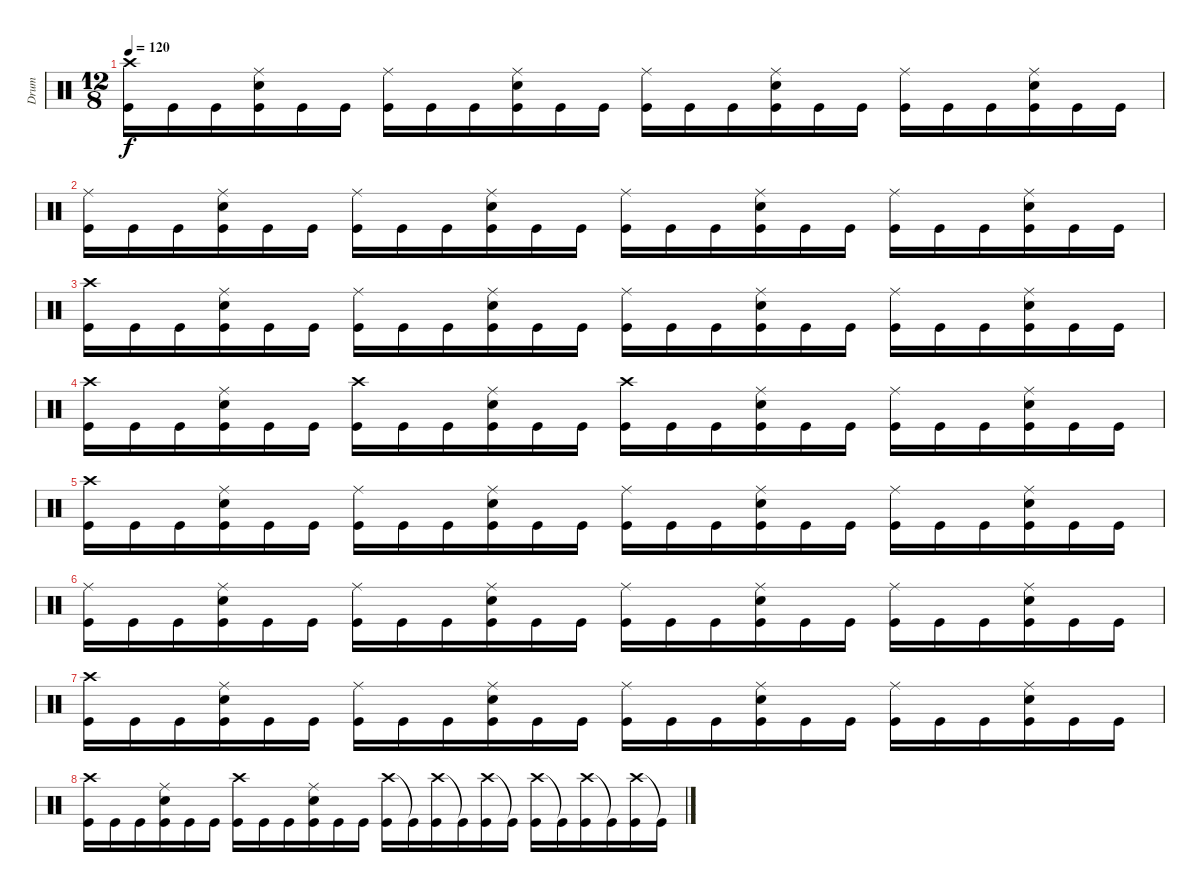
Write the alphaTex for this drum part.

\track ("Drum" "Drum") {instrument percussion}
\staff {score}
\articulation defaults
\ts (12 8)
\tempo 120
\clef neutral
\ks c
("Crash high (hit)" "Kick (hit)").16{dy f} "Kick (hit)".16 "Kick (hit)".16 ("Ride (middle)" "Electric Snare (hit)" "Kick (hit)").16 "Kick (hit)".16 "Kick (hit)".16 ("Ride (middle)" "Kick (hit)").16 "Kick (hit)".16 "Kick (hit)".16 ("Ride (middle)" "Electric Snare (hit)" "Kick (hit)").16 "Kick (hit)".16 "Kick (hit)".16 ("Ride (middle)" "Kick (hit)").16 "Kick (hit)".16 "Kick (hit)".16 ("Ride (middle)" "Electric Snare (hit)" "Kick (hit)").16 "Kick (hit)".16 "Kick (hit)".16 ("Ride (middle)" "Kick (hit)").16 "Kick (hit)".16 "Kick (hit)".16 ("Ride (middle)" "Electric Snare (hit)" "Kick (hit)").16 "Kick (hit)".16 "Kick (hit)".16 |
("Ride (middle)" "Kick (hit)").16 "Kick (hit)".16 "Kick (hit)".16 ("Ride (middle)" "Electric Snare (hit)" "Kick (hit)").16 "Kick (hit)".16 "Kick (hit)".16 ("Ride (middle)" "Kick (hit)").16 "Kick (hit)".16 "Kick (hit)".16 ("Ride (middle)" "Electric Snare (hit)" "Kick (hit)").16 "Kick (hit)".16 "Kick (hit)".16 ("Ride (middle)" "Kick (hit)").16 "Kick (hit)".16 "Kick (hit)".16 ("Ride (middle)" "Electric Snare (hit)" "Kick (hit)").16 "Kick (hit)".16 "Kick (hit)".16 ("Ride (middle)" "Kick (hit)").16 "Kick (hit)".16 "Kick (hit)".16 ("Ride (middle)" "Electric Snare (hit)" "Kick (hit)").16 "Kick (hit)".16 "Kick (hit)".16 |
("Crash high (hit)" "Kick (hit)").16 "Kick (hit)".16 "Kick (hit)".16 ("Ride (middle)" "Electric Snare (hit)" "Kick (hit)").16 "Kick (hit)".16 "Kick (hit)".16 ("Ride (middle)" "Kick (hit)").16 "Kick (hit)".16 "Kick (hit)".16 ("Ride (middle)" "Electric Snare (hit)" "Kick (hit)").16 "Kick (hit)".16 "Kick (hit)".16 ("Ride (middle)" "Kick (hit)").16 "Kick (hit)".16 "Kick (hit)".16 ("Ride (middle)" "Electric Snare (hit)" "Kick (hit)").16 "Kick (hit)".16 "Kick (hit)".16 ("Ride (middle)" "Kick (hit)").16 "Kick (hit)".16 "Kick (hit)".16 ("Ride (middle)" "Electric Snare (hit)" "Kick (hit)").16 "Kick (hit)".16 "Kick (hit)".16 |
("Crash high (hit)" "Kick (hit)").16 "Kick (hit)".16 "Kick (hit)".16 ("Ride (middle)" "Electric Snare (hit)" "Kick (hit)").16 "Kick (hit)".16 "Kick (hit)".16 ("Crash high (hit)" "Kick (hit)").16 "Kick (hit)".16 "Kick (hit)".16 ("Ride (middle)" "Electric Snare (hit)" "Kick (hit)").16 "Kick (hit)".16 "Kick (hit)".16 ("Crash high (hit)" "Kick (hit)").16 "Kick (hit)".16 "Kick (hit)".16 ("Ride (middle)" "Electric Snare (hit)" "Kick (hit)").16 "Kick (hit)".16 "Kick (hit)".16 ("Ride (middle)" "Kick (hit)").16 "Kick (hit)".16 "Kick (hit)".16 ("Ride (middle)" "Electric Snare (hit)" "Kick (hit)").16 "Kick (hit)".16 "Kick (hit)".16 |
("Crash high (hit)" "Kick (hit)").16 "Kick (hit)".16 "Kick (hit)".16 ("Ride (middle)" "Electric Snare (hit)" "Kick (hit)").16 "Kick (hit)".16 "Kick (hit)".16 ("Ride (middle)" "Kick (hit)").16 "Kick (hit)".16 "Kick (hit)".16 ("Ride (middle)" "Electric Snare (hit)" "Kick (hit)").16 "Kick (hit)".16 "Kick (hit)".16 ("Ride (middle)" "Kick (hit)").16 "Kick (hit)".16 "Kick (hit)".16 ("Ride (middle)" "Electric Snare (hit)" "Kick (hit)").16 "Kick (hit)".16 "Kick (hit)".16 ("Ride (middle)" "Kick (hit)").16 "Kick (hit)".16 "Kick (hit)".16 ("Ride (middle)" "Electric Snare (hit)" "Kick (hit)").16 "Kick (hit)".16 "Kick (hit)".16 |
("Ride (middle)" "Kick (hit)").16 "Kick (hit)".16 "Kick (hit)".16 ("Ride (middle)" "Electric Snare (hit)" "Kick (hit)").16 "Kick (hit)".16 "Kick (hit)".16 ("Ride (middle)" "Kick (hit)").16 "Kick (hit)".16 "Kick (hit)".16 ("Ride (middle)" "Electric Snare (hit)" "Kick (hit)").16 "Kick (hit)".16 "Kick (hit)".16 ("Ride (middle)" "Kick (hit)").16 "Kick (hit)".16 "Kick (hit)".16 ("Ride (middle)" "Electric Snare (hit)" "Kick (hit)").16 "Kick (hit)".16 "Kick (hit)".16 ("Ride (middle)" "Kick (hit)").16 "Kick (hit)".16 "Kick (hit)".16 ("Ride (middle)" "Electric Snare (hit)" "Kick (hit)").16 "Kick (hit)".16 "Kick (hit)".16 |
("Crash high (hit)" "Kick (hit)").16 "Kick (hit)".16 "Kick (hit)".16 ("Ride (middle)" "Electric Snare (hit)" "Kick (hit)").16 "Kick (hit)".16 "Kick (hit)".16 ("Ride (middle)" "Kick (hit)").16 "Kick (hit)".16 "Kick (hit)".16 ("Ride (middle)" "Electric Snare (hit)" "Kick (hit)").16 "Kick (hit)".16 "Kick (hit)".16 ("Ride (middle)" "Kick (hit)").16 "Kick (hit)".16 "Kick (hit)".16 ("Ride (middle)" "Electric Snare (hit)" "Kick (hit)").16 "Kick (hit)".16 "Kick (hit)".16 ("Ride (middle)" "Kick (hit)").16 "Kick (hit)".16 "Kick (hit)".16 ("Ride (middle)" "Electric Snare (hit)" "Kick (hit)").16 "Kick (hit)".16 "Kick (hit)".16 |
("Crash high (hit)" "Kick (hit)").16 "Kick (hit)".16 "Kick (hit)".16 ("Ride (middle)" "Electric Snare (hit)" "Kick (hit)").16 "Kick (hit)".16 "Kick (hit)".16 ("Crash high (hit)" "Kick (hit)").16 "Kick (hit)".16 "Kick (hit)".16 ("Ride (middle)" "Electric Snare (hit)" "Kick (hit)").16 "Kick (hit)".16 "Kick (hit)".16 ("Crash high (hit)" "Kick (hit)").16 "Kick (hit)"{t}.16 ("Crash high (hit)" "Kick (hit)").16 "Kick (hit)"{t}.16 ("Crash high (hit)" "Kick (hit)").16 "Kick (hit)"{t}.16 ("Crash high (hit)" "Kick (hit)").16 "Kick (hit)"{t}.16 ("Crash high (hit)" "Kick (hit)").16 "Kick (hit)"{t}.16 ("Crash high (hit)" "Kick (hit)").16 "Kick (hit)"{t}.16
